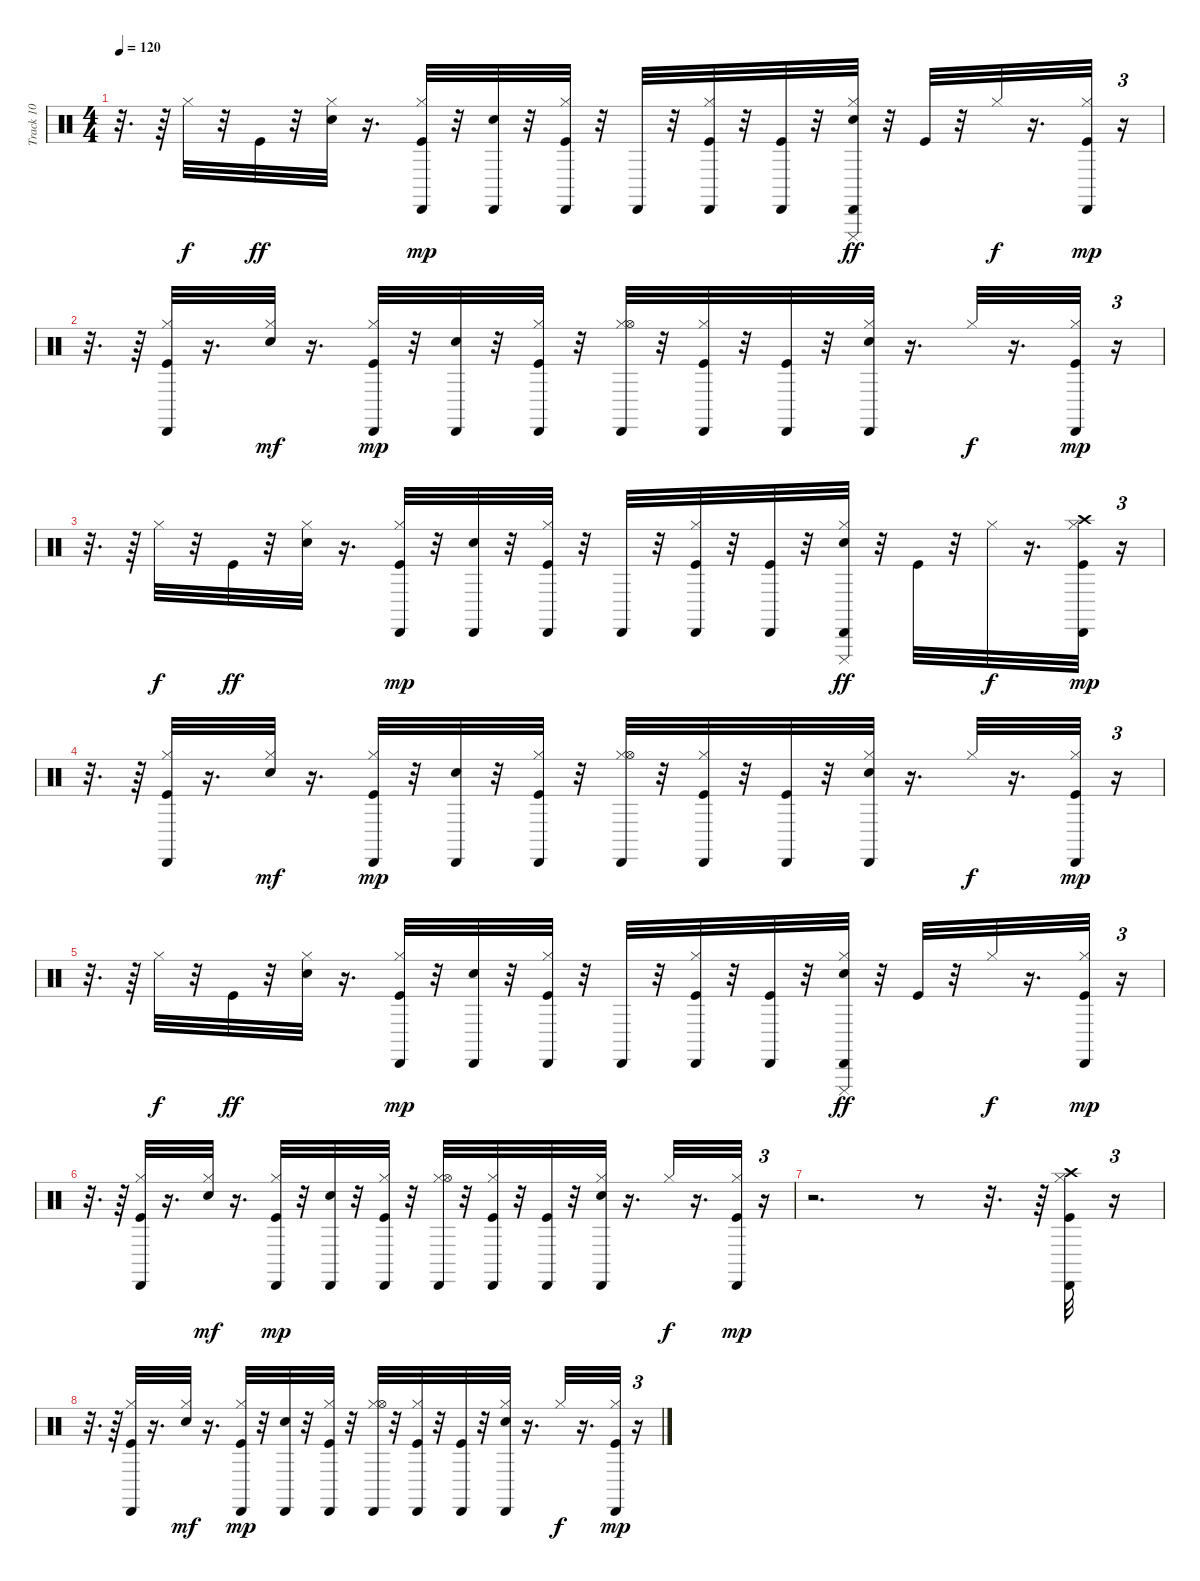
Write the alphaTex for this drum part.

\track ("Track 10" "Track 10") {instrument percussion}
\staff {score}
\articulation defaults
\ts (4 4)
\tempo 120
\clef neutral
\ks c
r.32{d dy mp} r.64 "Hi-Hat (closed)".32{dy f} r.32 "Kick (hit)".32{dy ff} r.32 ("Electric Snare (hit)" "Hi-Hat (closed)").32 r.16{d} ("Kick (hit)" "Hi-Hat (closed)" "Cabasa (hit)").32{dy mp} r.32 ("Electric Snare (hit)" "Cabasa (hit)").32 r.32 ("Kick (hit)" "Hi-Hat (closed)" "Cabasa (hit)").32 r.32 "Cabasa (hit)".32 r.32 ("Kick (hit)" "Hi-Hat (closed)" "Cabasa (hit)").32 r.32 ("Kick (hit)" "Cabasa (hit)").32 r.32 ("Electric Snare (hit)" "Hi-Hat (closed)" "Cabasa (hit)" "Cuica (mute)").32{dy ff} r.32 "Kick (hit)".32 r.32 "Hi-Hat (closed)".32{dy f} r.16{d} ("Kick (hit)" "Hi-Hat (closed)" "Cabasa (hit)").32{dy mp} r.16{tu (3 2)} |
r.32{d} r.64 ("Kick (hit)" "Hi-Hat (closed)" "Cabasa (hit)").32 r.16{d} ("Electric Snare (hit)" "Hi-Hat (closed)").32{dy mf} r.16{d} ("Kick (hit)" "Hi-Hat (closed)" "Cabasa (hit)").32{dy mp} r.32 ("Electric Snare (hit)" "Cabasa (hit)").32 r.32 ("Kick (hit)" "Hi-Hat (closed)" "Cabasa (hit)").32 r.32 ("Hi-Hat (closed)" "Hi-Hat (open)" "Cabasa (hit)").32 r.32 ("Kick (hit)" "Hi-Hat (closed)" "Cabasa (hit)").32 r.32 ("Kick (hit)" "Cabasa (hit)").32 r.32 ("Electric Snare (hit)" "Hi-Hat (closed)" "Cabasa (hit)").32 r.16{d} "Hi-Hat (closed)".32{dy f} r.16{d} ("Kick (hit)" "Hi-Hat (closed)" "Cabasa (hit)").32{dy mp} r.16{tu (3 2)} |
r.32{d} r.64 "Hi-Hat (closed)".32{dy f} r.32 "Kick (hit)".32{dy ff} r.32 ("Electric Snare (hit)" "Hi-Hat (closed)").32 r.16{d} ("Kick (hit)" "Hi-Hat (closed)" "Cabasa (hit)").32{dy mp} r.32 ("Electric Snare (hit)" "Cabasa (hit)").32 r.32 ("Kick (hit)" "Hi-Hat (closed)" "Cabasa (hit)").32 r.32 "Cabasa (hit)".32 r.32 ("Kick (hit)" "Hi-Hat (closed)" "Cabasa (hit)").32 r.32 ("Kick (hit)" "Cabasa (hit)").32 r.32 ("Electric Snare (hit)" "Hi-Hat (closed)" "Cabasa (hit)" "Cuica (mute)").32{dy ff} r.32 "Kick (hit)".32 r.32 "Hi-Hat (closed)".32{dy f} r.16{d} ("Kick (hit)" "Hi-Hat (closed)" "Crash high (hit)" "Cabasa (hit)").32{dy mp} r.16{tu (3 2)} |
r.32{d} r.64 ("Kick (hit)" "Hi-Hat (closed)" "Cabasa (hit)").32 r.16{d} ("Electric Snare (hit)" "Hi-Hat (closed)").32{dy mf} r.16{d} ("Kick (hit)" "Hi-Hat (closed)" "Cabasa (hit)").32{dy mp} r.32 ("Electric Snare (hit)" "Cabasa (hit)").32 r.32 ("Kick (hit)" "Hi-Hat (closed)" "Cabasa (hit)").32 r.32 ("Hi-Hat (closed)" "Hi-Hat (open)" "Cabasa (hit)").32 r.32 ("Kick (hit)" "Hi-Hat (closed)" "Cabasa (hit)").32 r.32 ("Kick (hit)" "Cabasa (hit)").32 r.32 ("Electric Snare (hit)" "Hi-Hat (closed)" "Cabasa (hit)").32 r.16{d} "Hi-Hat (closed)".32{dy f} r.16{d} ("Kick (hit)" "Hi-Hat (closed)" "Cabasa (hit)").32{dy mp} r.16{tu (3 2)} |
r.32{d} r.64 "Hi-Hat (closed)".32{dy f} r.32 "Kick (hit)".32{dy ff} r.32 ("Electric Snare (hit)" "Hi-Hat (closed)").32 r.16{d} ("Kick (hit)" "Hi-Hat (closed)" "Cabasa (hit)").32{dy mp} r.32 ("Electric Snare (hit)" "Cabasa (hit)").32 r.32 ("Kick (hit)" "Hi-Hat (closed)" "Cabasa (hit)").32 r.32 "Cabasa (hit)".32 r.32 ("Kick (hit)" "Hi-Hat (closed)" "Cabasa (hit)").32 r.32 ("Kick (hit)" "Cabasa (hit)").32 r.32 ("Electric Snare (hit)" "Hi-Hat (closed)" "Cabasa (hit)" "Cuica (mute)").32{dy ff} r.32 "Kick (hit)".32 r.32 "Hi-Hat (closed)".32{dy f} r.16{d} ("Kick (hit)" "Hi-Hat (closed)" "Cabasa (hit)").32{dy mp} r.16{tu (3 2)} |
r.32{d} r.64 ("Kick (hit)" "Hi-Hat (closed)" "Cabasa (hit)").32 r.16{d} ("Electric Snare (hit)" "Hi-Hat (closed)").32{dy mf} r.16{d} ("Kick (hit)" "Hi-Hat (closed)" "Cabasa (hit)").32{dy mp} r.32 ("Electric Snare (hit)" "Cabasa (hit)").32 r.32 ("Kick (hit)" "Hi-Hat (closed)" "Cabasa (hit)").32 r.32 ("Hi-Hat (closed)" "Hi-Hat (open)" "Cabasa (hit)").32 r.32 ("Kick (hit)" "Hi-Hat (closed)" "Cabasa (hit)").32 r.32 ("Kick (hit)" "Cabasa (hit)").32 r.32 ("Electric Snare (hit)" "Hi-Hat (closed)" "Cabasa (hit)").32 r.16{d} "Hi-Hat (closed)".32{dy f} r.16{d} ("Kick (hit)" "Hi-Hat (closed)" "Cabasa (hit)").32{dy mp} r.16{tu (3 2)} |
r.2{d} r.8 r.32{d} r.64 ("Kick (hit)" "Hi-Hat (closed)" "Crash high (hit)" "Cabasa (hit)").32 r.16{tu (3 2)} |
r.32{d} r.64 ("Kick (hit)" "Hi-Hat (closed)" "Cabasa (hit)").32 r.16{d} ("Electric Snare (hit)" "Hi-Hat (closed)").32{dy mf} r.16{d} ("Kick (hit)" "Hi-Hat (closed)" "Cabasa (hit)").32{dy mp} r.32 ("Electric Snare (hit)" "Cabasa (hit)").32 r.32 ("Kick (hit)" "Hi-Hat (closed)" "Cabasa (hit)").32 r.32 ("Hi-Hat (closed)" "Hi-Hat (open)" "Cabasa (hit)").32 r.32 ("Kick (hit)" "Hi-Hat (closed)" "Cabasa (hit)").32 r.32 ("Kick (hit)" "Cabasa (hit)").32 r.32 ("Electric Snare (hit)" "Hi-Hat (closed)" "Cabasa (hit)").32 r.16{d} "Hi-Hat (closed)".32{dy f} r.16{d} ("Kick (hit)" "Hi-Hat (closed)" "Cabasa (hit)").32{dy mp} r.16{tu (3 2)}
